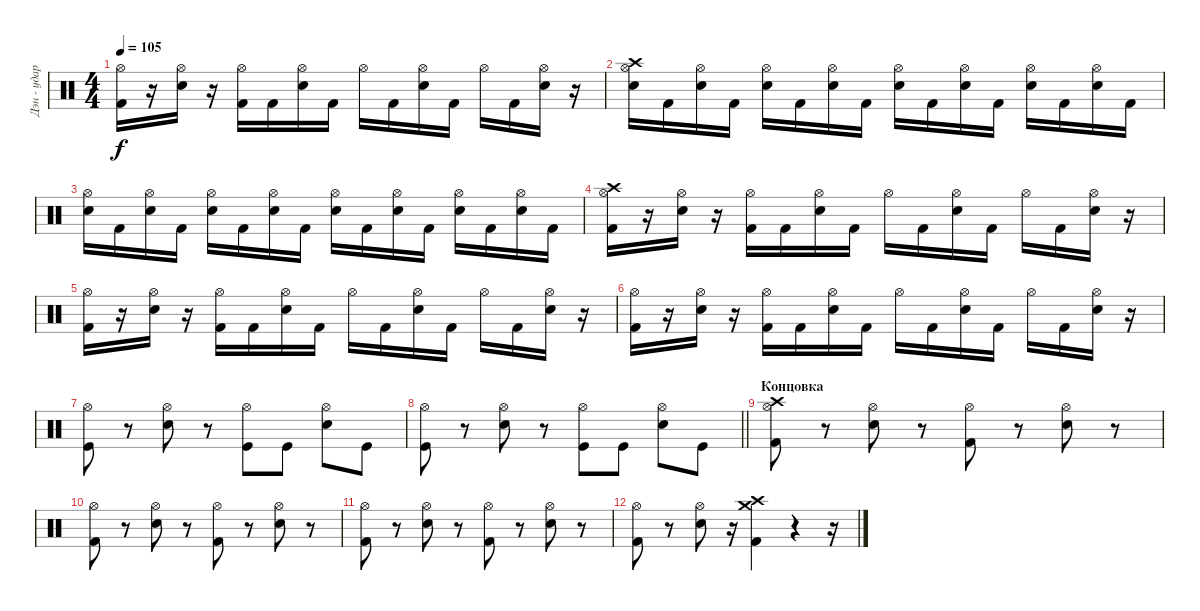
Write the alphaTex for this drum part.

\track ("Дэн - ударные" "Дэн - удар") {instrument percussion}
\staff {score}
\articulation defaults
\ts (4 4)
\tempo 105
\clef neutral
\ks c
("Hi-Hat (open)" "Kick (hit) 2").16{dy f} r.16 ("Hi-Hat (open)" "Electric Snare (hit)").16 r.16 ("Hi-Hat (open)" "Kick (hit) 2").16 "Kick (hit) 2".16 ("Hi-Hat (open)" "Electric Snare (hit)").16 "Kick (hit) 2".16 "Hi-Hat (open)".16 "Kick (hit) 2".16 ("Hi-Hat (open)" "Electric Snare (hit)").16 "Kick (hit) 2".16 "Hi-Hat (open)".16 "Kick (hit) 2".16 ("Hi-Hat (open)" "Electric Snare (hit)").16 r.16 |
("Crash high (hit)" "Hi-Hat (open)" "Electric Snare (hit)").16 "Kick (hit) 2".16 ("Hi-Hat (open)" "Electric Snare (hit)").16 "Kick (hit) 2".16 ("Hi-Hat (open)" "Electric Snare (hit)").16 "Kick (hit) 2".16 ("Hi-Hat (open)" "Electric Snare (hit)").16 "Kick (hit) 2".16 ("Hi-Hat (open)" "Electric Snare (hit)").16 "Kick (hit) 2".16 ("Hi-Hat (open)" "Electric Snare (hit)").16 "Kick (hit) 2".16 ("Hi-Hat (open)" "Electric Snare (hit)").16 "Kick (hit) 2".16 ("Hi-Hat (open)" "Electric Snare (hit)").16 "Kick (hit) 2".16 |
("Hi-Hat (open)" "Electric Snare (hit)").16 "Kick (hit) 2".16 ("Hi-Hat (open)" "Electric Snare (hit)").16 "Kick (hit) 2".16 ("Hi-Hat (open)" "Electric Snare (hit)").16 "Kick (hit) 2".16 ("Hi-Hat (open)" "Electric Snare (hit)").16 "Kick (hit) 2".16 ("Hi-Hat (open)" "Electric Snare (hit)").16 "Kick (hit) 2".16 ("Hi-Hat (open)" "Electric Snare (hit)").16 "Kick (hit) 2".16 ("Hi-Hat (open)" "Electric Snare (hit)").16 "Kick (hit) 2".16 ("Hi-Hat (open)" "Electric Snare (hit)").16 "Kick (hit) 2".16 |
("Crash high (hit)" "Hi-Hat (open)" "Kick (hit) 2").16 r.16 ("Hi-Hat (open)" "Electric Snare (hit)").16 r.16 ("Hi-Hat (open)" "Kick (hit) 2").16 "Kick (hit) 2".16 ("Hi-Hat (open)" "Electric Snare (hit)").16 "Kick (hit) 2".16 "Hi-Hat (open)".16 "Kick (hit) 2".16 ("Hi-Hat (open)" "Electric Snare (hit)").16 "Kick (hit) 2".16 "Hi-Hat (open)".16 "Kick (hit) 2".16 ("Hi-Hat (open)" "Electric Snare (hit)").16 r.16 |
("Hi-Hat (open)" "Kick (hit) 2").16 r.16 ("Hi-Hat (open)" "Electric Snare (hit)").16 r.16 ("Hi-Hat (open)" "Kick (hit) 2").16 "Kick (hit) 2".16 ("Hi-Hat (open)" "Electric Snare (hit)").16 "Kick (hit) 2".16 "Hi-Hat (open)".16 "Kick (hit) 2".16 ("Hi-Hat (open)" "Electric Snare (hit)").16 "Kick (hit) 2".16 "Hi-Hat (open)".16 "Kick (hit) 2".16 ("Hi-Hat (open)" "Electric Snare (hit)").16 r.16 |
("Hi-Hat (open)" "Kick (hit) 2").16 r.16 ("Hi-Hat (open)" "Electric Snare (hit)").16 r.16 ("Hi-Hat (open)" "Kick (hit) 2").16 "Kick (hit) 2".16 ("Hi-Hat (open)" "Electric Snare (hit)").16 "Kick (hit) 2".16 "Hi-Hat (open)".16 "Kick (hit) 2".16 ("Hi-Hat (open)" "Electric Snare (hit)").16 "Kick (hit) 2".16 "Hi-Hat (open)".16 "Kick (hit) 2".16 ("Hi-Hat (open)" "Electric Snare (hit)").16 r.16 |
("Hi-Hat (open)" "Kick (hit)").8 r.8 ("Hi-Hat (open)" "Electric Snare (hit)").8 r.8 ("Hi-Hat (open)" "Kick (hit)").8 "Kick (hit)".8 ("Hi-Hat (open)" "Electric Snare (hit)").8 "Kick (hit)".8 |
\barLineRight lightlight
("Hi-Hat (open)" "Kick (hit)").8 r.8 ("Hi-Hat (open)" "Electric Snare (hit)").8 r.8 ("Hi-Hat (open)" "Kick (hit)").8 "Kick (hit)".8 ("Hi-Hat (open)" "Electric Snare (hit)").8 "Kick (hit)".8 |
\section ("" "Концовка")
("Crash high (hit)" "Hi-Hat (open)" "Kick (hit) 2").8 r.8 ("Hi-Hat (open)" "Electric Snare (hit)").8 r.8 ("Hi-Hat (open)" "Kick (hit) 2").8 r.8 ("Hi-Hat (open)" "Electric Snare (hit)").8 r.8 |
("Hi-Hat (open)" "Kick (hit) 2").8 r.8 ("Hi-Hat (open)" "Electric Snare (hit)").8 r.8 ("Hi-Hat (open)" "Kick (hit) 2").8 r.8 ("Hi-Hat (open)" "Electric Snare (hit)").8 r.8 |
("Hi-Hat (open)" "Kick (hit) 2").8 r.8 ("Hi-Hat (open)" "Electric Snare (hit)").8 r.8 ("Hi-Hat (open)" "Kick (hit) 2").8 r.8 ("Hi-Hat (open)" "Electric Snare (hit)").8 r.8 |
("Hi-Hat (open)" "Kick (hit) 2").8 r.8 ("Hi-Hat (open)" "Electric Snare (hit)").8 r.16 ("Crash high (hit)" "Crash medium (hit)" "Kick (hit) 2").4 r.4 r.16
